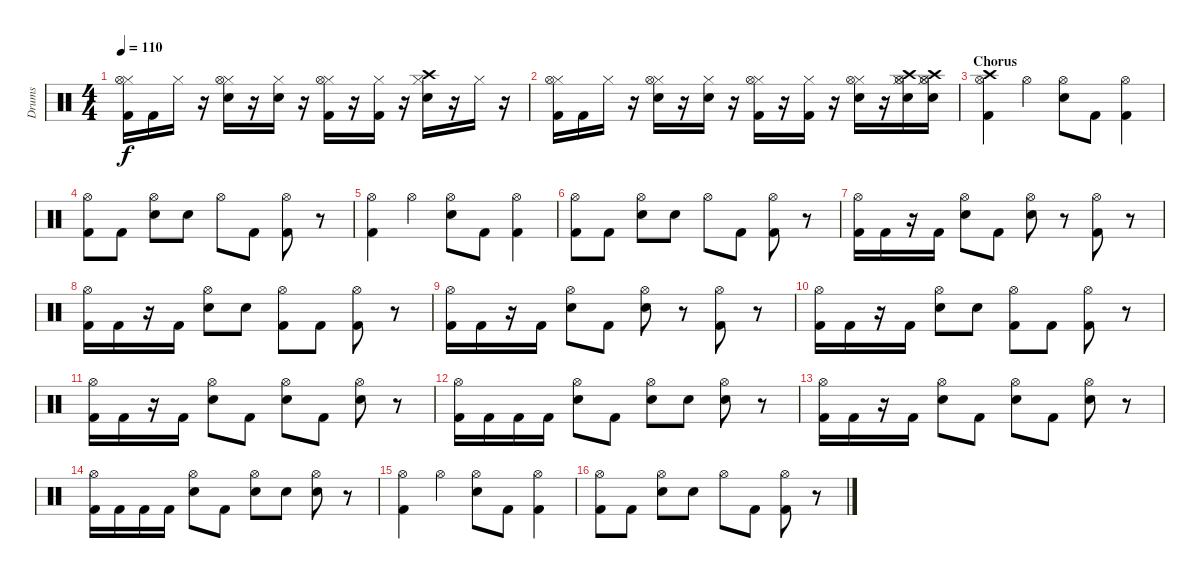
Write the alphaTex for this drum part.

\track ("Drums" "Drums") {instrument percussion}
\staff {score}
\articulation defaults
\ts (4 4)
\tempo 110
\clef neutral
\ks c
("Hi-Hat (closed)" "Hi-Hat (open)" "Kick (hit) 2").16{dy f} "Kick (hit) 2".16 "Hi-Hat (closed)".16 r.16 ("Hi-Hat (closed)" "Hi-Hat (open)" "Snare (hit) 2").16 r.16 ("Hi-Hat (closed)" "Snare (hit) 2").16 r.16 ("Hi-Hat (closed)" "Hi-Hat (open)" "Kick (hit) 2").16 r.16 ("Hi-Hat (closed)" "Kick (hit) 2").16 r.16 ("Hi-Hat (closed)" "Crash high (hit)" "Snare (hit) 2").16 r.16 "Hi-Hat (closed)".16 r.16 |
("Hi-Hat (closed)" "Hi-Hat (open)" "Kick (hit) 2").16 "Kick (hit) 2".16 "Hi-Hat (closed)".16 r.16 ("Hi-Hat (closed)" "Hi-Hat (open)" "Snare (hit) 2").16 r.16 ("Hi-Hat (closed)" "Snare (hit) 2").16 r.16 ("Hi-Hat (closed)" "Hi-Hat (open)" "Kick (hit) 2").16 r.16 ("Hi-Hat (closed)" "Kick (hit) 2").16 r.16 ("Hi-Hat (closed)" "Hi-Hat (open)" "Snare (hit) 2").16 r.16 ("Hi-Hat (closed)" "Hi-Hat (open)" "Crash high (hit)" "Snare (hit) 2").16 ("Hi-Hat (closed)" "Hi-Hat (open)" "Crash high (hit)" "Snare (hit) 2").16 |
\section ("" "Chorus")
("Hi-Hat (open)" "Crash high (hit)" "Kick (hit) 2").4{volume 14} "Hi-Hat (open)".4 ("Hi-Hat (open)" "Snare (hit) 2").8 "Kick (hit) 2".8 ("Hi-Hat (open)" "Kick (hit) 2").4 |
("Hi-Hat (open)" "Kick (hit) 2").8 "Kick (hit) 2".8 ("Hi-Hat (open)" "Snare (hit) 2").8 "Snare (hit) 2".8 "Hi-Hat (open)".8 "Kick (hit) 2".8 ("Hi-Hat (open)" "Kick (hit) 2").8 r.8 |
("Hi-Hat (open)" "Kick (hit) 2").4 "Hi-Hat (open)".4 ("Hi-Hat (open)" "Snare (hit) 2").8 "Kick (hit) 2".8 ("Hi-Hat (open)" "Kick (hit) 2").4 |
("Hi-Hat (open)" "Kick (hit) 2").8 "Kick (hit) 2".8 ("Hi-Hat (open)" "Snare (hit) 2").8 "Snare (hit) 2".8 "Hi-Hat (open)".8 "Kick (hit) 2".8 ("Hi-Hat (open)" "Kick (hit) 2").8 r.8 |
("Hi-Hat (open)" "Kick (hit) 2").16 "Kick (hit) 2".16 r.16 "Kick (hit) 2".16 ("Hi-Hat (open)" "Snare (hit) 2").8 "Kick (hit) 2".8 ("Hi-Hat (open)" "Snare (hit) 2").8 r.8 ("Hi-Hat (open)" "Kick (hit) 2").8 r.8 |
("Hi-Hat (open)" "Kick (hit) 2").16 "Kick (hit) 2".16 r.16 "Kick (hit) 2".16 ("Hi-Hat (open)" "Snare (hit) 2").8 "Snare (hit) 2".8 ("Hi-Hat (open)" "Kick (hit) 2").8 "Kick (hit) 2".8 ("Hi-Hat (open)" "Kick (hit) 2").8 r.8 |
("Hi-Hat (open)" "Kick (hit) 2").16 "Kick (hit) 2".16 r.16 "Kick (hit) 2".16 ("Hi-Hat (open)" "Snare (hit) 2").8 "Kick (hit) 2".8 ("Hi-Hat (open)" "Snare (hit) 2").8 r.8 ("Hi-Hat (open)" "Kick (hit) 2").8 r.8 |
("Hi-Hat (open)" "Kick (hit) 2").16 "Kick (hit) 2".16 r.16 "Kick (hit) 2".16 ("Hi-Hat (open)" "Snare (hit) 2").8 "Snare (hit) 2".8 ("Hi-Hat (open)" "Kick (hit) 2").8 "Kick (hit) 2".8 ("Hi-Hat (open)" "Kick (hit) 2").8 r.8 |
("Hi-Hat (open)" "Kick (hit) 2").16 "Kick (hit) 2".16 r.16 "Kick (hit) 2".16 ("Hi-Hat (open)" "Snare (hit) 2").8 "Kick (hit) 2".8 ("Hi-Hat (open)" "Snare (hit) 2").8 "Kick (hit) 2".8 ("Hi-Hat (open)" "Snare (hit) 2").8 r.8 |
("Hi-Hat (open)" "Kick (hit) 2").16 "Kick (hit) 2".16 "Kick (hit) 2".16 "Kick (hit) 2".16 ("Hi-Hat (open)" "Snare (hit) 2").8 "Kick (hit) 2".8 ("Hi-Hat (open)" "Snare (hit) 2").8 "Snare (hit) 2".8 ("Hi-Hat (open)" "Snare (hit) 2").8 r.8 |
("Hi-Hat (open)" "Kick (hit) 2").16 "Kick (hit) 2".16 r.16 "Kick (hit) 2".16 ("Hi-Hat (open)" "Snare (hit) 2").8 "Kick (hit) 2".8 ("Hi-Hat (open)" "Snare (hit) 2").8 "Kick (hit) 2".8 ("Hi-Hat (open)" "Snare (hit) 2").8 r.8 |
("Hi-Hat (open)" "Kick (hit) 2").16 "Kick (hit) 2".16 "Kick (hit) 2".16 "Kick (hit) 2".16 ("Hi-Hat (open)" "Snare (hit) 2").8 "Kick (hit) 2".8 ("Hi-Hat (open)" "Snare (hit) 2").8 "Snare (hit) 2".8 ("Hi-Hat (open)" "Snare (hit) 2").8 r.8 |
("Hi-Hat (open)" "Kick (hit) 2").4 "Hi-Hat (open)".4 ("Hi-Hat (open)" "Snare (hit) 2").8 "Kick (hit) 2".8 ("Hi-Hat (open)" "Kick (hit) 2").4 |
("Hi-Hat (open)" "Kick (hit) 2").8 "Kick (hit) 2".8 ("Hi-Hat (open)" "Snare (hit) 2").8 "Snare (hit) 2".8 "Hi-Hat (open)".8 "Kick (hit) 2".8 ("Hi-Hat (open)" "Kick (hit) 2").8 r.8
